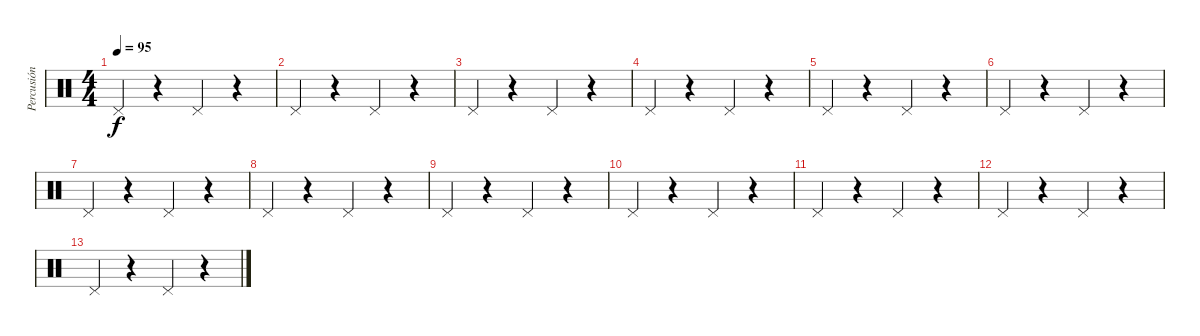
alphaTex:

\track ("Percusión" "Percusión") {instrument percussion}
\staff {score}
\articulation defaults
\ts (4 4)
\tempo 95
\clef neutral
\ks c "Pedal Hi-Hat (hit)".4{dy f}
r.4 "Pedal Hi-Hat (hit)".4 r.4 |
"Pedal Hi-Hat (hit)".4 r.4 "Pedal Hi-Hat (hit)".4 r.4 |
"Pedal Hi-Hat (hit)".4 r.4 "Pedal Hi-Hat (hit)".4 r.4 |
"Pedal Hi-Hat (hit)".4 r.4 "Pedal Hi-Hat (hit)".4 r.4 |
"Pedal Hi-Hat (hit)".4 r.4 "Pedal Hi-Hat (hit)".4 r.4 |
"Pedal Hi-Hat (hit)".4 r.4 "Pedal Hi-Hat (hit)".4 r.4 |
"Pedal Hi-Hat (hit)".4 r.4 "Pedal Hi-Hat (hit)".4 r.4 |
"Pedal Hi-Hat (hit)".4 r.4 "Pedal Hi-Hat (hit)".4 r.4 |
"Pedal Hi-Hat (hit)".4 r.4 "Pedal Hi-Hat (hit)".4 r.4 |
"Pedal Hi-Hat (hit)".4 r.4 "Pedal Hi-Hat (hit)".4 r.4 |
"Pedal Hi-Hat (hit)".4 r.4 "Pedal Hi-Hat (hit)".4 r.4 |
"Pedal Hi-Hat (hit)".4 r.4 "Pedal Hi-Hat (hit)".4 r.4 |
"Pedal Hi-Hat (hit)".4 r.4 "Pedal Hi-Hat (hit)".4 r.4
